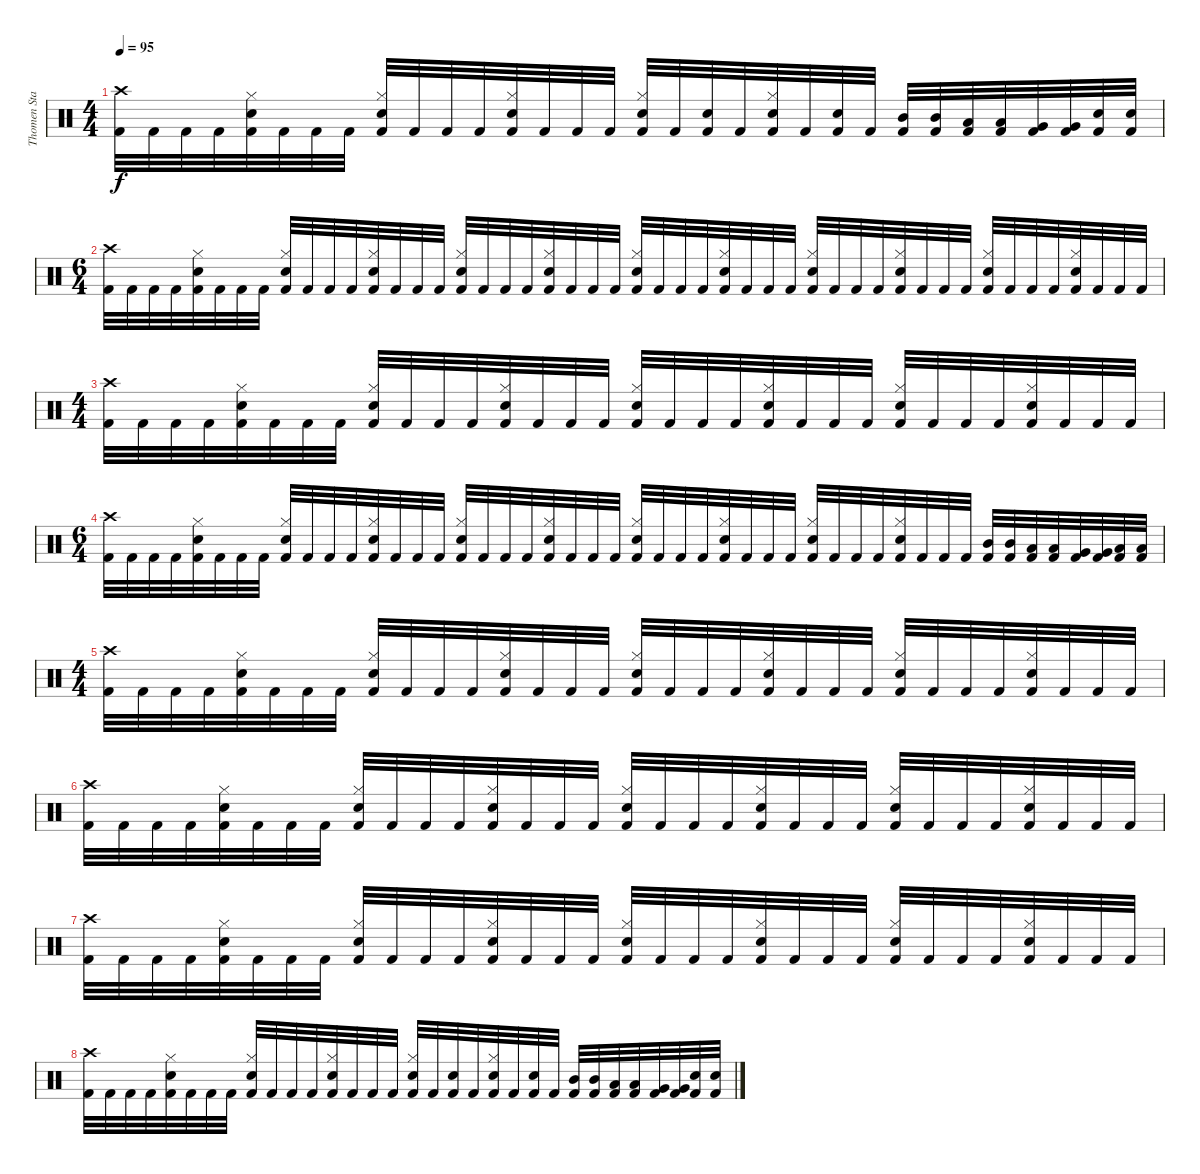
\track ("Thomen Stauch" "Thomen Sta") {instrument percussion}
\staff {score}
\articulation defaults
\ts (4 4)
\tempo 95
\clef neutral
\ks c
("Crash high (hit)" "Kick (hit) 2").32{dy f} "Kick (hit) 2".32 "Kick (hit) 2".32 "Kick (hit) 2".32 ("Hi-Hat (closed)" "Snare (hit) 2" "Kick (hit) 2").32 "Kick (hit) 2".32 "Kick (hit) 2".32 "Kick (hit) 2".32 ("Hi-Hat (closed)" "Snare (hit) 2" "Kick (hit) 2").32 "Kick (hit) 2".32 "Kick (hit) 2".32 "Kick (hit) 2".32 ("Hi-Hat (closed)" "Snare (hit) 2" "Kick (hit) 2").32 "Kick (hit) 2".32 "Kick (hit) 2".32 "Kick (hit) 2".32 ("Hi-Hat (closed)" "Snare (hit) 2" "Kick (hit) 2").32 "Kick (hit) 2".32 ("Snare (hit) 2" "Kick (hit) 2").32 "Kick (hit) 2".32 ("Hi-Hat (closed)" "Snare (hit) 2" "Kick (hit) 2").32 "Kick (hit) 2".32 ("Snare (hit) 2" "Kick (hit) 2").32 "Kick (hit) 2".32 ("Mid Tom (hit)" "Kick (hit) 2").32 ("Mid Tom (hit)" "Kick (hit) 2").32 ("Low Tom (hit)" "Kick (hit) 2").32 ("Low Tom (hit)" "Kick (hit) 2").32 ("Very Low Tom (hit)" "Kick (hit) 2").32 ("Very Low Tom (hit)" "Kick (hit) 2").32 ("Snare (hit) 2" "Kick (hit) 2").32 ("Snare (hit) 2" "Kick (hit) 2").32 |
\ts (6 4)
("Crash high (hit)" "Kick (hit) 2").32 "Kick (hit) 2".32 "Kick (hit) 2".32 "Kick (hit) 2".32 ("Hi-Hat (closed)" "Snare (hit) 2" "Kick (hit) 2").32 "Kick (hit) 2".32 "Kick (hit) 2".32 "Kick (hit) 2".32 ("Hi-Hat (closed)" "Snare (hit) 2" "Kick (hit) 2").32 "Kick (hit) 2".32 "Kick (hit) 2".32 "Kick (hit) 2".32 ("Hi-Hat (closed)" "Snare (hit) 2" "Kick (hit) 2").32 "Kick (hit) 2".32 "Kick (hit) 2".32 "Kick (hit) 2".32 ("Hi-Hat (closed)" "Snare (hit) 2" "Kick (hit) 2").32 "Kick (hit) 2".32 "Kick (hit) 2".32 "Kick (hit) 2".32 ("Hi-Hat (closed)" "Snare (hit) 2" "Kick (hit) 2").32 "Kick (hit) 2".32 "Kick (hit) 2".32 "Kick (hit) 2".32 ("Hi-Hat (closed)" "Snare (hit) 2" "Kick (hit) 2").32 "Kick (hit) 2".32 "Kick (hit) 2".32 "Kick (hit) 2".32 ("Hi-Hat (closed)" "Snare (hit) 2" "Kick (hit) 2").32 "Kick (hit) 2".32 "Kick (hit) 2".32 "Kick (hit) 2".32 ("Hi-Hat (closed)" "Snare (hit) 2" "Kick (hit) 2").32 "Kick (hit) 2".32 "Kick (hit) 2".32 "Kick (hit) 2".32 ("Hi-Hat (closed)" "Snare (hit) 2" "Kick (hit) 2").32 "Kick (hit) 2".32 "Kick (hit) 2".32 "Kick (hit) 2".32 ("Hi-Hat (closed)" "Snare (hit) 2" "Kick (hit) 2").32 "Kick (hit) 2".32 "Kick (hit) 2".32 "Kick (hit) 2".32 ("Hi-Hat (closed)" "Snare (hit) 2" "Kick (hit) 2").32 "Kick (hit) 2".32 "Kick (hit) 2".32 "Kick (hit) 2".32 |
\ts (4 4)
("Crash high (hit)" "Kick (hit) 2").32 "Kick (hit) 2".32 "Kick (hit) 2".32 "Kick (hit) 2".32 ("Hi-Hat (closed)" "Snare (hit) 2" "Kick (hit) 2").32 "Kick (hit) 2".32 "Kick (hit) 2".32 "Kick (hit) 2".32 ("Hi-Hat (closed)" "Snare (hit) 2" "Kick (hit) 2").32 "Kick (hit) 2".32 "Kick (hit) 2".32 "Kick (hit) 2".32 ("Hi-Hat (closed)" "Snare (hit) 2" "Kick (hit) 2").32 "Kick (hit) 2".32 "Kick (hit) 2".32 "Kick (hit) 2".32 ("Hi-Hat (closed)" "Snare (hit) 2" "Kick (hit) 2").32 "Kick (hit) 2".32 "Kick (hit) 2".32 "Kick (hit) 2".32 ("Hi-Hat (closed)" "Snare (hit) 2" "Kick (hit) 2").32 "Kick (hit) 2".32 "Kick (hit) 2".32 "Kick (hit) 2".32 ("Hi-Hat (closed)" "Snare (hit) 2" "Kick (hit) 2").32 "Kick (hit) 2".32 "Kick (hit) 2".32 "Kick (hit) 2".32 ("Hi-Hat (closed)" "Snare (hit) 2" "Kick (hit) 2").32 "Kick (hit) 2".32 "Kick (hit) 2".32 "Kick (hit) 2".32 |
\ts (6 4)
("Crash high (hit)" "Kick (hit) 2").32 "Kick (hit) 2".32 "Kick (hit) 2".32 "Kick (hit) 2".32 ("Hi-Hat (closed)" "Snare (hit) 2" "Kick (hit) 2").32 "Kick (hit) 2".32 "Kick (hit) 2".32 "Kick (hit) 2".32 ("Hi-Hat (closed)" "Snare (hit) 2" "Kick (hit) 2").32 "Kick (hit) 2".32 "Kick (hit) 2".32 "Kick (hit) 2".32 ("Hi-Hat (closed)" "Snare (hit) 2" "Kick (hit) 2").32 "Kick (hit) 2".32 "Kick (hit) 2".32 "Kick (hit) 2".32 ("Hi-Hat (closed)" "Snare (hit) 2" "Kick (hit) 2").32 "Kick (hit) 2".32 "Kick (hit) 2".32 "Kick (hit) 2".32 ("Hi-Hat (closed)" "Snare (hit) 2" "Kick (hit) 2").32 "Kick (hit) 2".32 "Kick (hit) 2".32 "Kick (hit) 2".32 ("Hi-Hat (closed)" "Snare (hit) 2" "Kick (hit) 2").32 "Kick (hit) 2".32 "Kick (hit) 2".32 "Kick (hit) 2".32 ("Hi-Hat (closed)" "Snare (hit) 2" "Kick (hit) 2").32 "Kick (hit) 2".32 "Kick (hit) 2".32 "Kick (hit) 2".32 ("Hi-Hat (closed)" "Snare (hit) 2" "Kick (hit) 2").32 "Kick (hit) 2".32 "Kick (hit) 2".32 "Kick (hit) 2".32 ("Hi-Hat (closed)" "Snare (hit) 2" "Kick (hit) 2").32 "Kick (hit) 2".32 "Kick (hit) 2".32 "Kick (hit) 2".32 ("Mid Tom (hit)" "Kick (hit) 2").32 ("Mid Tom (hit)" "Kick (hit) 2").32 ("Low Tom (hit)" "Kick (hit) 2").32 ("Low Tom (hit)" "Kick (hit) 2").32 ("Very Low Tom (hit)" "Kick (hit) 2").32 ("Very Low Tom (hit)" "Kick (hit) 2").32 ("Low Floor Tom (hit)" "Kick (hit) 2").32 ("Low Floor Tom (hit)" "Kick (hit) 2").32 |
\ts (4 4)
("Crash high (hit)" "Kick (hit) 2").32 "Kick (hit) 2".32 "Kick (hit) 2".32 "Kick (hit) 2".32 ("Hi-Hat (closed)" "Snare (hit) 2" "Kick (hit) 2").32 "Kick (hit) 2".32 "Kick (hit) 2".32 "Kick (hit) 2".32 ("Hi-Hat (closed)" "Snare (hit) 2" "Kick (hit) 2").32 "Kick (hit) 2".32 "Kick (hit) 2".32 "Kick (hit) 2".32 ("Hi-Hat (closed)" "Snare (hit) 2" "Kick (hit) 2").32 "Kick (hit) 2".32 "Kick (hit) 2".32 "Kick (hit) 2".32 ("Hi-Hat (closed)" "Snare (hit) 2" "Kick (hit) 2").32 "Kick (hit) 2".32 "Kick (hit) 2".32 "Kick (hit) 2".32 ("Hi-Hat (closed)" "Snare (hit) 2" "Kick (hit) 2").32 "Kick (hit) 2".32 "Kick (hit) 2".32 "Kick (hit) 2".32 ("Hi-Hat (closed)" "Snare (hit) 2" "Kick (hit) 2").32 "Kick (hit) 2".32 "Kick (hit) 2".32 "Kick (hit) 2".32 ("Hi-Hat (closed)" "Snare (hit) 2" "Kick (hit) 2").32 "Kick (hit) 2".32 "Kick (hit) 2".32 "Kick (hit) 2".32 |
("Crash high (hit)" "Kick (hit) 2").32 "Kick (hit) 2".32 "Kick (hit) 2".32 "Kick (hit) 2".32 ("Hi-Hat (closed)" "Snare (hit) 2" "Kick (hit) 2").32 "Kick (hit) 2".32 "Kick (hit) 2".32 "Kick (hit) 2".32 ("Hi-Hat (closed)" "Snare (hit) 2" "Kick (hit) 2").32 "Kick (hit) 2".32 "Kick (hit) 2".32 "Kick (hit) 2".32 ("Hi-Hat (closed)" "Snare (hit) 2" "Kick (hit) 2").32 "Kick (hit) 2".32 "Kick (hit) 2".32 "Kick (hit) 2".32 ("Hi-Hat (closed)" "Snare (hit) 2" "Kick (hit) 2").32 "Kick (hit) 2".32 "Kick (hit) 2".32 "Kick (hit) 2".32 ("Hi-Hat (closed)" "Snare (hit) 2" "Kick (hit) 2").32 "Kick (hit) 2".32 "Kick (hit) 2".32 "Kick (hit) 2".32 ("Hi-Hat (closed)" "Snare (hit) 2" "Kick (hit) 2").32 "Kick (hit) 2".32 "Kick (hit) 2".32 "Kick (hit) 2".32 ("Hi-Hat (closed)" "Snare (hit) 2" "Kick (hit) 2").32 "Kick (hit) 2".32 "Kick (hit) 2".32 "Kick (hit) 2".32 |
("Crash high (hit)" "Kick (hit) 2").32 "Kick (hit) 2".32 "Kick (hit) 2".32 "Kick (hit) 2".32 ("Hi-Hat (closed)" "Snare (hit) 2" "Kick (hit) 2").32 "Kick (hit) 2".32 "Kick (hit) 2".32 "Kick (hit) 2".32 ("Hi-Hat (closed)" "Snare (hit) 2" "Kick (hit) 2").32 "Kick (hit) 2".32 "Kick (hit) 2".32 "Kick (hit) 2".32 ("Hi-Hat (closed)" "Snare (hit) 2" "Kick (hit) 2").32 "Kick (hit) 2".32 "Kick (hit) 2".32 "Kick (hit) 2".32 ("Hi-Hat (closed)" "Snare (hit) 2" "Kick (hit) 2").32 "Kick (hit) 2".32 "Kick (hit) 2".32 "Kick (hit) 2".32 ("Hi-Hat (closed)" "Snare (hit) 2" "Kick (hit) 2").32 "Kick (hit) 2".32 "Kick (hit) 2".32 "Kick (hit) 2".32 ("Hi-Hat (closed)" "Snare (hit) 2" "Kick (hit) 2").32 "Kick (hit) 2".32 "Kick (hit) 2".32 "Kick (hit) 2".32 ("Hi-Hat (closed)" "Snare (hit) 2" "Kick (hit) 2").32 "Kick (hit) 2".32 "Kick (hit) 2".32 "Kick (hit) 2".32 |
("Crash high (hit)" "Kick (hit) 2").32 "Kick (hit) 2".32 "Kick (hit) 2".32 "Kick (hit) 2".32 ("Hi-Hat (closed)" "Snare (hit) 2" "Kick (hit) 2").32 "Kick (hit) 2".32 "Kick (hit) 2".32 "Kick (hit) 2".32 ("Hi-Hat (closed)" "Snare (hit) 2" "Kick (hit) 2").32 "Kick (hit) 2".32 "Kick (hit) 2".32 "Kick (hit) 2".32 ("Hi-Hat (closed)" "Snare (hit) 2" "Kick (hit) 2").32 "Kick (hit) 2".32 "Kick (hit) 2".32 "Kick (hit) 2".32 ("Hi-Hat (closed)" "Snare (hit) 2" "Kick (hit) 2").32 "Kick (hit) 2".32 ("Snare (hit) 2" "Kick (hit) 2").32 "Kick (hit) 2".32 ("Hi-Hat (closed)" "Snare (hit) 2" "Kick (hit) 2").32 "Kick (hit) 2".32 ("Snare (hit) 2" "Kick (hit) 2").32 "Kick (hit) 2".32 ("Mid Tom (hit)" "Kick (hit) 2").32 ("Mid Tom (hit)" "Kick (hit) 2").32 ("Low Tom (hit)" "Kick (hit) 2").32 ("Low Tom (hit)" "Kick (hit) 2").32 ("Very Low Tom (hit)" "Kick (hit) 2").32 ("Very Low Tom (hit)" "Kick (hit) 2").32 ("Snare (hit) 2" "Kick (hit) 2").32 ("Snare (hit) 2" "Kick (hit) 2").32
